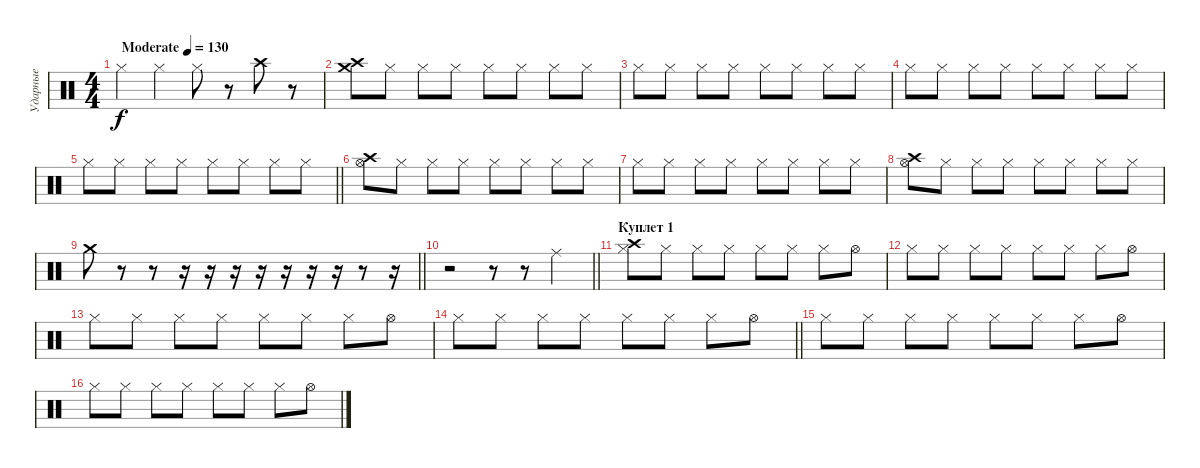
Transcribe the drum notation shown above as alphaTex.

\track ("Ударные" "Ударные") {instrument percussion}
\staff {score}
\articulation defaults
\ts (4 4)
\tempo (130 "Moderate")
\clef neutral
\ks c "Hi-Hat (closed)".4{dy f} "Hi-Hat (closed)".4 "Hi-Hat (closed)".8
r.8 "Crash high (hit)".8 r.8 |
("Crash high (hit)" "Crash medium (hit)").8 "Hi-Hat (closed)".8 "Hi-Hat (closed)".8 "Hi-Hat (closed)".8 "Hi-Hat (closed)".8 "Hi-Hat (closed)".8 "Hi-Hat (closed)".8 "Hi-Hat (closed)".8 |
"Hi-Hat (closed)".8 "Hi-Hat (closed)".8 "Hi-Hat (closed)".8 "Hi-Hat (closed)".8 "Hi-Hat (closed)".8 "Hi-Hat (closed)".8 "Hi-Hat (closed)".8 "Hi-Hat (closed)".8 |
"Hi-Hat (closed)".8 "Hi-Hat (closed)".8 "Hi-Hat (closed)".8 "Hi-Hat (closed)".8 "Hi-Hat (closed)".8 "Hi-Hat (closed)".8 "Hi-Hat (closed)".8 "Hi-Hat (closed)".8 |
\barLineRight lightlight "Hi-Hat (closed)".8 "Hi-Hat (closed)".8 "Hi-Hat (closed)".8 "Hi-Hat (closed)".8 "Hi-Hat (closed)".8 "Hi-Hat (closed)".8 "Hi-Hat (closed)".8 "Hi-Hat (closed)".8
|
("Hi-Hat (open)" "Crash high (hit)").8 "Hi-Hat (closed)".8 "Hi-Hat (closed)".8 "Hi-Hat (closed)".8 "Hi-Hat (closed)".8 "Hi-Hat (closed)".8 "Hi-Hat (closed)".8 "Hi-Hat (closed)".8 |
"Hi-Hat (closed)".8 "Hi-Hat (closed)".8 "Hi-Hat (closed)".8 "Hi-Hat (closed)".8 "Hi-Hat (closed)".8 "Hi-Hat (closed)".8 "Hi-Hat (closed)".8 "Hi-Hat (closed)".8 |
("Hi-Hat (open)" "Crash high (hit)").8 "Hi-Hat (closed)".8 "Hi-Hat (closed)".8 "Hi-Hat (closed)".8 "Hi-Hat (closed)".8 "Hi-Hat (closed)".8 "Hi-Hat (closed)".8 "Hi-Hat (closed)".8 |
\barLineRight lightlight "Crash medium (hit)".8
r.8 r.8 r.16 r.16 r.16 r.16 r.16 r.16 r.16 r.8 r.16 |
\barLineRight lightlight
r.2 r.8 r.8 "Ride (middle)".4 |
\section ("" "Куплет 1")
("Hi-Hat (closed)" "Crash high (hit)").8 "Hi-Hat (closed)".8 "Hi-Hat (closed)".8 "Hi-Hat (closed)".8 "Hi-Hat (closed)".8 "Hi-Hat (closed)".8 "Hi-Hat (closed)".8 "Hi-Hat (open)".8 |
"Hi-Hat (closed)".8 "Hi-Hat (closed)".8 "Hi-Hat (closed)".8 "Hi-Hat (closed)".8 "Hi-Hat (closed)".8 "Hi-Hat (closed)".8 "Hi-Hat (closed)".8 "Hi-Hat (open)".8 |
"Hi-Hat (closed)".8 "Hi-Hat (closed)".8 "Hi-Hat (closed)".8 "Hi-Hat (closed)".8 "Hi-Hat (closed)".8 "Hi-Hat (closed)".8 "Hi-Hat (closed)".8 "Hi-Hat (open)".8 |
\barLineRight lightlight "Hi-Hat (closed)".8 "Hi-Hat (closed)".8 "Hi-Hat (closed)".8 "Hi-Hat (closed)".8 "Hi-Hat (closed)".8 "Hi-Hat (closed)".8 "Hi-Hat (closed)".8 "Hi-Hat (open)".8
|
"Hi-Hat (closed)".8 "Hi-Hat (closed)".8 "Hi-Hat (closed)".8 "Hi-Hat (closed)".8 "Hi-Hat (closed)".8 "Hi-Hat (closed)".8 "Hi-Hat (closed)".8 "Hi-Hat (open)".8 |
"Hi-Hat (closed)".8 "Hi-Hat (closed)".8 "Hi-Hat (closed)".8 "Hi-Hat (closed)".8 "Hi-Hat (closed)".8 "Hi-Hat (closed)".8 "Hi-Hat (closed)".8 "Hi-Hat (open)".8
